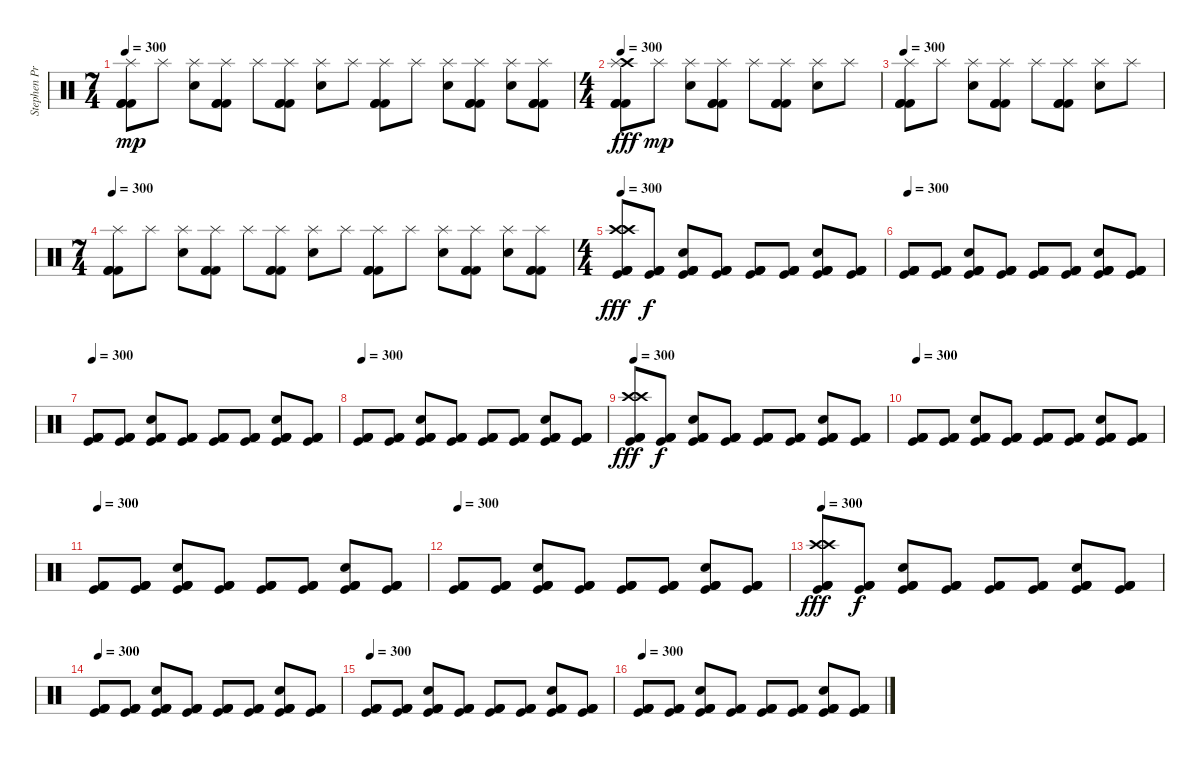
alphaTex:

\track ("Stephen Priestly  (Drums)" "Stephen Pr") {instrument percussion}
\staff {score}
\articulation defaults
\ts (7 4)
\tempo 300
\clef neutral
\ks c
("Splash (hit)" "Kick (hit) 2" "Kick (hit) 2" "Kick (hit) 2").8{dy mp} "Splash (hit)".8 ("Splash (hit)" "Electric Snare (hit)").8 ("Splash (hit)" "Kick (hit) 2" "Kick (hit) 2" "Kick (hit) 2").8 "Splash (hit)".8 ("Splash (hit)" "Kick (hit) 2" "Kick (hit) 2" "Kick (hit) 2").8 ("Splash (hit)" "Electric Snare (hit)").8 "Splash (hit)".8 ("Splash (hit)" "Kick (hit) 2" "Kick (hit) 2" "Kick (hit) 2").8 "Splash (hit)".8 ("Splash (hit)" "Electric Snare (hit)").8 ("Splash (hit)" "Kick (hit) 2" "Kick (hit) 2" "Kick (hit) 2").8 ("Splash (hit)" "Electric Snare (hit)").8 ("Splash (hit)" "Kick (hit) 2" "Kick (hit) 2" "Kick (hit) 2").8 |
\ts (4 4)
\tempo 300
("Crash high (hit)" "Splash (hit)" "Kick (hit) 2" "Kick (hit) 2" "Kick (hit) 2").8{dy fff} "Splash (hit)".8{dy mp} ("Splash (hit)" "Electric Snare (hit)").8 ("Splash (hit)" "Kick (hit) 2" "Kick (hit) 2" "Kick (hit) 2").8 "Splash (hit)".8 ("Splash (hit)" "Kick (hit) 2" "Kick (hit) 2" "Kick (hit) 2").8 ("Splash (hit)" "Electric Snare (hit)").8 "Splash (hit)".8 |
\tempo 300
("Splash (hit)" "Kick (hit) 2" "Kick (hit) 2" "Kick (hit) 2").8 "Splash (hit)".8 ("Splash (hit)" "Electric Snare (hit)").8 ("Splash (hit)" "Kick (hit) 2" "Kick (hit) 2" "Kick (hit) 2").8 "Splash (hit)".8 ("Splash (hit)" "Kick (hit) 2" "Kick (hit) 2" "Kick (hit) 2").8 ("Splash (hit)" "Electric Snare (hit)").8 "Splash (hit)".8 |
\ts (7 4)
\tempo 300
("Splash (hit)" "Kick (hit) 2" "Kick (hit) 2" "Kick (hit) 2").8 "Splash (hit)".8 ("Splash (hit)" "Electric Snare (hit)").8 ("Splash (hit)" "Kick (hit) 2" "Kick (hit) 2" "Kick (hit) 2").8 "Splash (hit)".8 ("Splash (hit)" "Kick (hit) 2" "Kick (hit) 2" "Kick (hit) 2").8 ("Splash (hit)" "Electric Snare (hit)").8 "Splash (hit)".8 ("Splash (hit)" "Kick (hit) 2" "Kick (hit) 2" "Kick (hit) 2").8 "Splash (hit)".8 ("Splash (hit)" "Electric Snare (hit)").8 ("Splash (hit)" "Kick (hit) 2" "Kick (hit) 2" "Kick (hit) 2").8 ("Splash (hit)" "Electric Snare (hit)").8 ("Splash (hit)" "Kick (hit) 2" "Kick (hit) 2" "Kick (hit) 2").8 |
\ts (4 4)
\tempo 300
("Crash high (hit)" "Crash high (hit)" "Kick (hit)" "Kick (hit) 2" "Kick (hit) 2" "Kick (hit) 2").8{dy fff} ("Kick (hit)" "Kick (hit) 2" "Kick (hit) 2" "Kick (hit) 2").8{dy f} ("Electric Snare (hit)" "Kick (hit)" "Kick (hit) 2" "Kick (hit) 2" "Kick (hit) 2").8 ("Kick (hit)" "Kick (hit) 2" "Kick (hit) 2" "Kick (hit) 2").8 ("Kick (hit)" "Kick (hit) 2" "Kick (hit) 2" "Kick (hit) 2").8 ("Kick (hit)" "Kick (hit) 2" "Kick (hit) 2" "Kick (hit) 2").8 ("Electric Snare (hit)" "Kick (hit)" "Kick (hit) 2" "Kick (hit) 2" "Kick (hit) 2").8 ("Kick (hit)" "Kick (hit) 2" "Kick (hit) 2" "Kick (hit) 2").8 |
\tempo 300
("Kick (hit)" "Kick (hit) 2" "Kick (hit) 2" "Kick (hit) 2").8 ("Kick (hit)" "Kick (hit) 2" "Kick (hit) 2" "Kick (hit) 2").8 ("Electric Snare (hit)" "Kick (hit)" "Kick (hit) 2" "Kick (hit) 2" "Kick (hit) 2").8 ("Kick (hit)" "Kick (hit) 2" "Kick (hit) 2" "Kick (hit) 2").8 ("Kick (hit)" "Kick (hit) 2" "Kick (hit) 2" "Kick (hit) 2").8 ("Kick (hit)" "Kick (hit) 2" "Kick (hit) 2" "Kick (hit) 2").8 ("Electric Snare (hit)" "Kick (hit)" "Kick (hit) 2" "Kick (hit) 2" "Kick (hit) 2").8 ("Kick (hit)" "Kick (hit) 2" "Kick (hit) 2" "Kick (hit) 2").8 |
\tempo 300
("Kick (hit)" "Kick (hit) 2" "Kick (hit) 2" "Kick (hit) 2").8 ("Kick (hit)" "Kick (hit) 2" "Kick (hit) 2" "Kick (hit) 2").8 ("Electric Snare (hit)" "Kick (hit)" "Kick (hit) 2" "Kick (hit) 2" "Kick (hit) 2").8 ("Kick (hit)" "Kick (hit) 2" "Kick (hit) 2" "Kick (hit) 2").8 ("Kick (hit)" "Kick (hit) 2" "Kick (hit) 2" "Kick (hit) 2").8 ("Kick (hit)" "Kick (hit) 2" "Kick (hit) 2" "Kick (hit) 2").8 ("Electric Snare (hit)" "Kick (hit)" "Kick (hit) 2" "Kick (hit) 2" "Kick (hit) 2").8 ("Kick (hit)" "Kick (hit) 2" "Kick (hit) 2" "Kick (hit) 2").8 |
\tempo 300
("Kick (hit)" "Kick (hit) 2" "Kick (hit) 2" "Kick (hit) 2").8 ("Kick (hit)" "Kick (hit) 2" "Kick (hit) 2" "Kick (hit) 2").8 ("Electric Snare (hit)" "Kick (hit)" "Kick (hit) 2" "Kick (hit) 2" "Kick (hit) 2").8 ("Kick (hit)" "Kick (hit) 2" "Kick (hit) 2" "Kick (hit) 2").8 ("Kick (hit)" "Kick (hit) 2" "Kick (hit) 2" "Kick (hit) 2").8 ("Kick (hit)" "Kick (hit) 2" "Kick (hit) 2" "Kick (hit) 2").8 ("Electric Snare (hit)" "Kick (hit)" "Kick (hit) 2" "Kick (hit) 2" "Kick (hit) 2").8 ("Kick (hit)" "Kick (hit) 2" "Kick (hit) 2" "Kick (hit) 2").8 |
\tempo 300
("Crash high (hit)" "Crash high (hit)" "Kick (hit)" "Kick (hit) 2" "Kick (hit) 2" "Kick (hit) 2").8{dy fff} ("Kick (hit)" "Kick (hit) 2" "Kick (hit) 2" "Kick (hit) 2").8{dy f} ("Electric Snare (hit)" "Kick (hit)" "Kick (hit) 2" "Kick (hit) 2" "Kick (hit) 2").8 ("Kick (hit)" "Kick (hit) 2" "Kick (hit) 2" "Kick (hit) 2").8 ("Kick (hit)" "Kick (hit) 2" "Kick (hit) 2" "Kick (hit) 2").8 ("Kick (hit)" "Kick (hit) 2" "Kick (hit) 2" "Kick (hit) 2").8 ("Electric Snare (hit)" "Kick (hit)" "Kick (hit) 2" "Kick (hit) 2" "Kick (hit) 2").8 ("Kick (hit)" "Kick (hit) 2" "Kick (hit) 2" "Kick (hit) 2").8 |
\tempo 300
("Kick (hit)" "Kick (hit) 2" "Kick (hit) 2" "Kick (hit) 2").8 ("Kick (hit)" "Kick (hit) 2" "Kick (hit) 2" "Kick (hit) 2").8 ("Electric Snare (hit)" "Kick (hit)" "Kick (hit) 2" "Kick (hit) 2" "Kick (hit) 2").8 ("Kick (hit)" "Kick (hit) 2" "Kick (hit) 2" "Kick (hit) 2").8 ("Kick (hit)" "Kick (hit) 2" "Kick (hit) 2" "Kick (hit) 2").8 ("Kick (hit)" "Kick (hit) 2" "Kick (hit) 2" "Kick (hit) 2").8 ("Electric Snare (hit)" "Kick (hit)" "Kick (hit) 2" "Kick (hit) 2" "Kick (hit) 2").8 ("Kick (hit)" "Kick (hit) 2" "Kick (hit) 2" "Kick (hit) 2").8 |
\tempo 300
("Kick (hit)" "Kick (hit) 2" "Kick (hit) 2" "Kick (hit) 2").8 ("Kick (hit)" "Kick (hit) 2" "Kick (hit) 2" "Kick (hit) 2").8 ("Electric Snare (hit)" "Kick (hit)" "Kick (hit) 2" "Kick (hit) 2" "Kick (hit) 2").8 ("Kick (hit)" "Kick (hit) 2" "Kick (hit) 2" "Kick (hit) 2").8 ("Kick (hit)" "Kick (hit) 2" "Kick (hit) 2" "Kick (hit) 2").8 ("Kick (hit)" "Kick (hit) 2" "Kick (hit) 2" "Kick (hit) 2").8 ("Electric Snare (hit)" "Kick (hit)" "Kick (hit) 2" "Kick (hit) 2" "Kick (hit) 2").8 ("Kick (hit)" "Kick (hit) 2" "Kick (hit) 2" "Kick (hit) 2").8 |
\tempo 300
("Kick (hit)" "Kick (hit) 2" "Kick (hit) 2" "Kick (hit) 2").8 ("Kick (hit)" "Kick (hit) 2" "Kick (hit) 2" "Kick (hit) 2").8 ("Electric Snare (hit)" "Kick (hit)" "Kick (hit) 2" "Kick (hit) 2" "Kick (hit) 2").8 ("Kick (hit)" "Kick (hit) 2" "Kick (hit) 2" "Kick (hit) 2").8 ("Kick (hit)" "Kick (hit) 2" "Kick (hit) 2" "Kick (hit) 2").8 ("Kick (hit)" "Kick (hit) 2" "Kick (hit) 2" "Kick (hit) 2").8 ("Electric Snare (hit)" "Kick (hit)" "Kick (hit) 2" "Kick (hit) 2" "Kick (hit) 2").8 ("Kick (hit)" "Kick (hit) 2" "Kick (hit) 2" "Kick (hit) 2").8 |
\tempo 300
("Crash high (hit)" "Crash high (hit)" "Kick (hit)" "Kick (hit) 2" "Kick (hit) 2" "Kick (hit) 2").8{dy fff} ("Kick (hit)" "Kick (hit) 2" "Kick (hit) 2" "Kick (hit) 2").8{dy f} ("Electric Snare (hit)" "Kick (hit)" "Kick (hit) 2" "Kick (hit) 2" "Kick (hit) 2").8 ("Kick (hit)" "Kick (hit) 2" "Kick (hit) 2" "Kick (hit) 2").8 ("Kick (hit)" "Kick (hit) 2" "Kick (hit) 2" "Kick (hit) 2").8 ("Kick (hit)" "Kick (hit) 2" "Kick (hit) 2" "Kick (hit) 2").8 ("Electric Snare (hit)" "Kick (hit)" "Kick (hit) 2" "Kick (hit) 2" "Kick (hit) 2").8 ("Kick (hit)" "Kick (hit) 2" "Kick (hit) 2" "Kick (hit) 2").8 |
\tempo 300
("Kick (hit)" "Kick (hit) 2" "Kick (hit) 2" "Kick (hit) 2").8 ("Kick (hit)" "Kick (hit) 2" "Kick (hit) 2" "Kick (hit) 2").8 ("Electric Snare (hit)" "Kick (hit)" "Kick (hit) 2" "Kick (hit) 2" "Kick (hit) 2").8 ("Kick (hit)" "Kick (hit) 2" "Kick (hit) 2" "Kick (hit) 2").8 ("Kick (hit)" "Kick (hit) 2" "Kick (hit) 2" "Kick (hit) 2").8 ("Kick (hit)" "Kick (hit) 2" "Kick (hit) 2" "Kick (hit) 2").8 ("Electric Snare (hit)" "Kick (hit)" "Kick (hit) 2" "Kick (hit) 2" "Kick (hit) 2").8 ("Kick (hit)" "Kick (hit) 2" "Kick (hit) 2" "Kick (hit) 2").8 |
\tempo 300
("Kick (hit)" "Kick (hit) 2" "Kick (hit) 2" "Kick (hit) 2").8 ("Kick (hit)" "Kick (hit) 2" "Kick (hit) 2" "Kick (hit) 2").8 ("Electric Snare (hit)" "Kick (hit)" "Kick (hit) 2" "Kick (hit) 2" "Kick (hit) 2").8 ("Kick (hit)" "Kick (hit) 2" "Kick (hit) 2" "Kick (hit) 2").8 ("Kick (hit)" "Kick (hit) 2" "Kick (hit) 2" "Kick (hit) 2").8 ("Kick (hit)" "Kick (hit) 2" "Kick (hit) 2" "Kick (hit) 2").8 ("Electric Snare (hit)" "Kick (hit)" "Kick (hit) 2" "Kick (hit) 2" "Kick (hit) 2").8 ("Kick (hit)" "Kick (hit) 2" "Kick (hit) 2" "Kick (hit) 2").8 |
\tempo 300
("Kick (hit)" "Kick (hit) 2" "Kick (hit) 2" "Kick (hit) 2").8 ("Kick (hit)" "Kick (hit) 2" "Kick (hit) 2" "Kick (hit) 2").8 ("Electric Snare (hit)" "Kick (hit)" "Kick (hit) 2" "Kick (hit) 2" "Kick (hit) 2").8 ("Kick (hit)" "Kick (hit) 2" "Kick (hit) 2" "Kick (hit) 2").8 ("Kick (hit)" "Kick (hit) 2" "Kick (hit) 2" "Kick (hit) 2").8 ("Kick (hit)" "Kick (hit) 2" "Kick (hit) 2" "Kick (hit) 2").8 ("Electric Snare (hit)" "Kick (hit)" "Kick (hit) 2" "Kick (hit) 2" "Kick (hit) 2").8 ("Kick (hit)" "Kick (hit) 2" "Kick (hit) 2" "Kick (hit) 2").8
